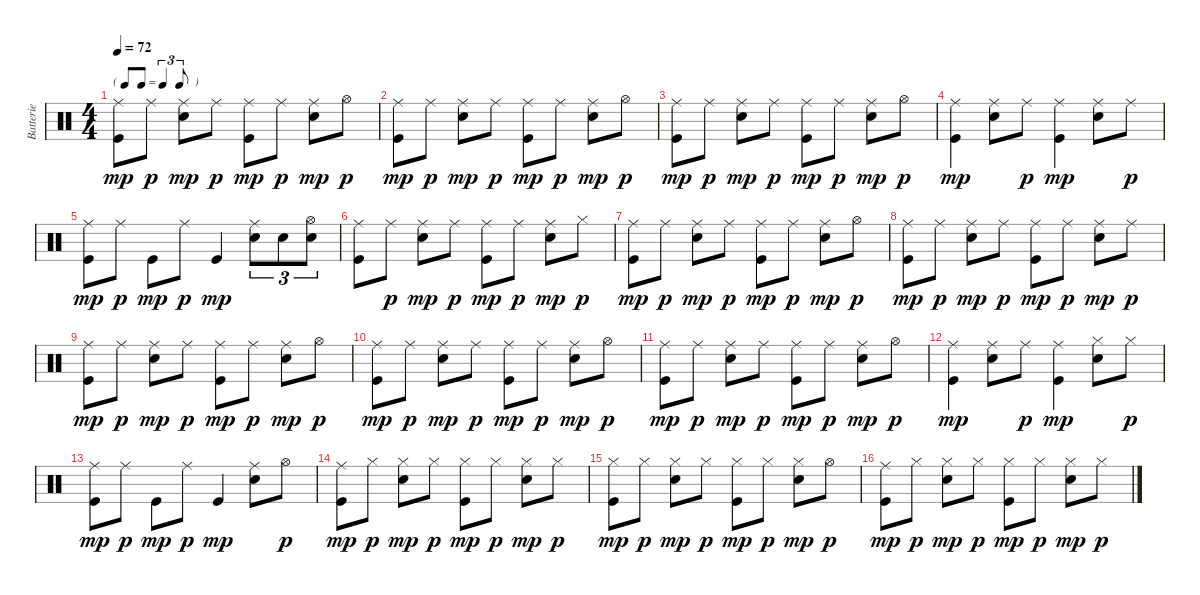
\track ("Batterie" "Batterie") {instrument percussion}
\staff {score}
\articulation defaults
\ts (4 4)
\tf triplet8th
\tempo 72
\clef neutral
\ks c
("Ride (middle)" "Kick (hit)").8{dy mp} "Ride (middle)".8{dy p} ("Ride (middle)" "Snare (hit) 2").8{dy mp} "Ride (middle)".8{dy p} ("Ride (middle)" "Kick (hit)").8{dy mp} "Ride (middle)".8{dy p} ("Ride (middle)" "Snare (hit) 2").8{dy mp} "Hi-Hat (open)".8{dy p} |
("Ride (middle)" "Kick (hit)").8{dy mp} "Ride (middle)".8{dy p} ("Ride (middle)" "Snare (hit) 2").8{dy mp} "Ride (middle)".8{dy p} ("Ride (middle)" "Kick (hit)").8{dy mp} "Ride (middle)".8{dy p} ("Ride (middle)" "Snare (hit) 2").8{dy mp} "Hi-Hat (open)".8{dy p} |
("Ride (middle)" "Kick (hit)").8{dy mp} "Ride (middle)".8{dy p} ("Ride (middle)" "Snare (hit) 2").8{dy mp} "Ride (middle)".8{dy p} ("Ride (middle)" "Kick (hit)").8{dy mp} "Ride (middle)".8{dy p} ("Ride (middle)" "Snare (hit) 2").8{dy mp} "Hi-Hat (open)".8{dy p} |
("Ride (middle)" "Kick (hit)").4{dy mp} ("Ride (middle)" "Snare (hit) 2").8 "Ride (middle)".8{dy p} ("Ride (middle)" "Kick (hit)").4{dy mp} ("Ride (middle)" "Snare (hit) 2").8 "Ride (middle)".8{dy p} |
("Ride (middle)" "Kick (hit)").8{dy mp} "Ride (middle)".8{dy p} "Kick (hit)".8{dy mp} "Ride (middle)".8{dy p} "Kick (hit)".4{dy mp} ("Ride (middle)" "Snare (hit) 2").8{tu (3 2)} "Snare (hit) 2".8{tu (3 2)} ("Hi-Hat (open)" "Snare (hit) 2").8{tu (3 2)} |
("Ride (middle)" "Kick (hit)").8 "Ride (middle)".8{dy p} ("Ride (middle)" "Snare (hit) 2").8{dy mp} "Ride (middle)".8{dy p} ("Ride (middle)" "Kick (hit)").8{dy mp} "Ride (middle)".8{dy p} ("Ride (middle)" "Snare (hit) 2").8{dy mp} "Hi-Hat (closed)".8{dy p} |
("Ride (middle)" "Kick (hit)").8{dy mp} "Ride (middle)".8{dy p} ("Ride (middle)" "Snare (hit) 2").8{dy mp} "Ride (middle)".8{dy p} ("Ride (middle)" "Kick (hit)").8{dy mp} "Ride (middle)".8{dy p} ("Ride (middle)" "Snare (hit) 2").8{dy mp} "Hi-Hat (open)".8{dy p} |
("Ride (middle)" "Kick (hit)").8{dy mp} "Ride (middle)".8{dy p} ("Ride (middle)" "Snare (hit) 2").8{dy mp} "Ride (middle)".8{dy p} ("Ride (middle)" "Kick (hit)").8{dy mp} "Ride (middle)".8{dy p} ("Ride (middle)" "Snare (hit) 2").8{dy mp} "Ride (middle)".8{dy p} |
("Ride (middle)" "Kick (hit)").8{dy mp} "Ride (middle)".8{dy p} ("Ride (middle)" "Snare (hit) 2").8{dy mp} "Ride (middle)".8{dy p} ("Ride (middle)" "Kick (hit)").8{dy mp} "Ride (middle)".8{dy p} ("Ride (middle)" "Snare (hit) 2").8{dy mp} "Hi-Hat (open)".8{dy p} |
("Ride (middle)" "Kick (hit)").8{dy mp} "Ride (middle)".8{dy p} ("Ride (middle)" "Snare (hit) 2").8{dy mp} "Ride (middle)".8{dy p} ("Ride (middle)" "Kick (hit)").8{dy mp} "Ride (middle)".8{dy p} ("Ride (middle)" "Snare (hit) 2").8{dy mp} "Hi-Hat (open)".8{dy p} |
("Ride (middle)" "Kick (hit)").8{dy mp} "Ride (middle)".8{dy p} ("Ride (middle)" "Snare (hit) 2").8{dy mp} "Ride (middle)".8{dy p} ("Ride (middle)" "Kick (hit)").8{dy mp} "Ride (middle)".8{dy p} ("Ride (middle)" "Snare (hit) 2").8{dy mp} "Hi-Hat (open)".8{dy p} |
("Ride (middle)" "Kick (hit)").4{dy mp} ("Ride (middle)" "Snare (hit) 2").8 "Ride (middle)".8{dy p} ("Ride (middle)" "Kick (hit)").4{dy mp} ("Hi-Hat (closed)" "Snare (hit) 2").8 "Hi-Hat (closed)".8{dy p} |
("Ride (middle)" "Kick (hit)").8{dy mp} "Ride (middle)".8{dy p} "Kick (hit)".8{dy mp} "Ride (middle)".8{dy p} "Kick (hit)".4{dy mp} ("Ride (middle)" "Snare (hit) 2").8 "Hi-Hat (open)".8{dy p} |
("Ride (middle)" "Kick (hit)").8{dy mp} "Hi-Hat (closed)".8{dy p} ("Hi-Hat (closed)" "Snare (hit) 2").8{dy mp} "Hi-Hat (closed)".8{dy p} ("Hi-Hat (closed)" "Kick (hit)").8{dy mp} "Hi-Hat (closed)".8{dy p} ("Hi-Hat (closed)" "Snare (hit) 2").8{dy mp} "Hi-Hat (closed)".8{dy p} |
("Hi-Hat (closed)" "Kick (hit)").8{dy mp} "Hi-Hat (closed)".8{dy p} ("Hi-Hat (closed)" "Snare (hit) 2").8{dy mp} "Hi-Hat (closed)".8{dy p} ("Hi-Hat (closed)" "Kick (hit)").8{dy mp} "Hi-Hat (closed)".8{dy p} ("Hi-Hat (closed)" "Snare (hit) 2").8{dy mp} "Hi-Hat (open)".8{dy p} |
("Ride (middle)" "Kick (hit)").8{dy mp} "Hi-Hat (closed)".8{dy p} ("Hi-Hat (closed)" "Snare (hit) 2").8{dy mp} "Hi-Hat (closed)".8{dy p} ("Hi-Hat (closed)" "Kick (hit)").8{dy mp} "Hi-Hat (closed)".8{dy p} ("Hi-Hat (closed)" "Snare (hit) 2").8{dy mp} "Hi-Hat (closed)".8{dy p}
